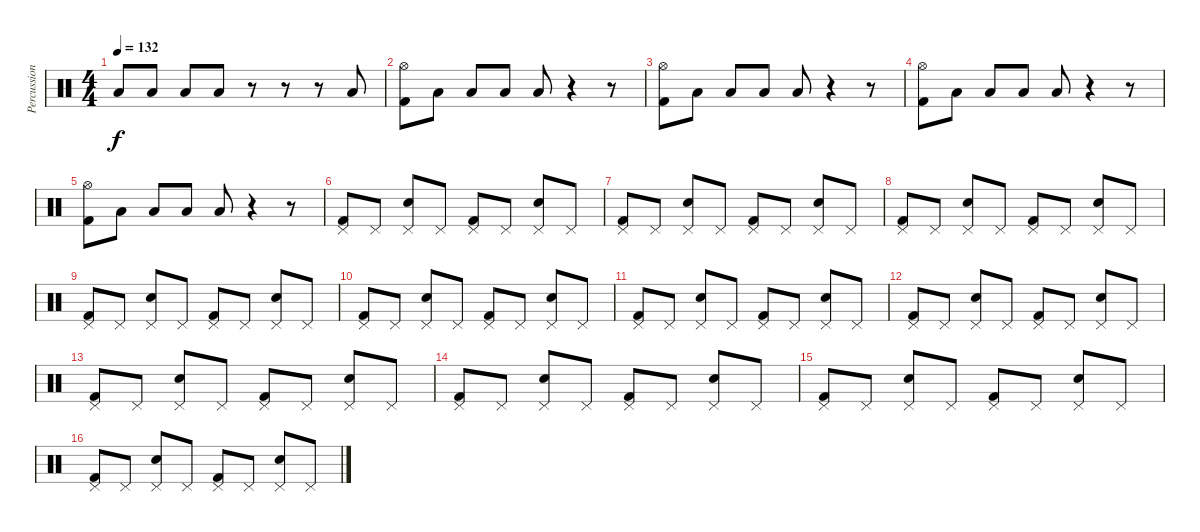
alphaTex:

\track ("Percussion" "Percussion") {instrument percussion}
\staff {score}
\articulation defaults
\ts (4 4)
\tempo 132
\clef neutral
\ks c "Low Tom (hit)".8{dy f} "Low Tom (hit)".8 "Low Tom (hit)".8 "Low Tom (hit)".8
r.8 r.8 r.8 "Low Tom (hit)".8 |
("Hi-Hat (open)" "Kick (hit) 2").8 "Low Tom (hit)".8 "Low Tom (hit)".8 "Low Tom (hit)".8 "Low Tom (hit)".8 r.4 r.8 |
("Hi-Hat (open)" "Kick (hit) 2").8 "Low Tom (hit)".8 "Low Tom (hit)".8 "Low Tom (hit)".8 "Low Tom (hit)".8 r.4 r.8 |
("Hi-Hat (open)" "Kick (hit) 2").8 "Low Tom (hit)".8 "Low Tom (hit)".8 "Low Tom (hit)".8 "Low Tom (hit)".8 r.4 r.8 |
("Hi-Hat (open)" "Kick (hit) 2").8 "Low Tom (hit)".8 "Low Tom (hit)".8 "Low Tom (hit)".8 "Low Tom (hit)".8 r.4 r.8 |
("Pedal Hi-Hat (hit)" "Kick (hit) 2").8 "Pedal Hi-Hat (hit)".8 ("Pedal Hi-Hat (hit)" "Snare (hit) 2").8 "Pedal Hi-Hat (hit)".8 ("Pedal Hi-Hat (hit)" "Kick (hit) 2").8 "Pedal Hi-Hat (hit)".8 ("Pedal Hi-Hat (hit)" "Snare (hit) 2").8 "Pedal Hi-Hat (hit)".8 |
("Pedal Hi-Hat (hit)" "Kick (hit) 2").8 "Pedal Hi-Hat (hit)".8 ("Pedal Hi-Hat (hit)" "Snare (hit) 2").8 "Pedal Hi-Hat (hit)".8 ("Pedal Hi-Hat (hit)" "Kick (hit) 2").8 "Pedal Hi-Hat (hit)".8 ("Pedal Hi-Hat (hit)" "Snare (hit) 2").8 "Pedal Hi-Hat (hit)".8 |
("Pedal Hi-Hat (hit)" "Kick (hit) 2").8 "Pedal Hi-Hat (hit)".8 ("Pedal Hi-Hat (hit)" "Snare (hit) 2").8 "Pedal Hi-Hat (hit)".8 ("Pedal Hi-Hat (hit)" "Kick (hit) 2").8 "Pedal Hi-Hat (hit)".8 ("Pedal Hi-Hat (hit)" "Snare (hit) 2").8 "Pedal Hi-Hat (hit)".8 |
("Pedal Hi-Hat (hit)" "Kick (hit) 2").8 "Pedal Hi-Hat (hit)".8 ("Pedal Hi-Hat (hit)" "Snare (hit) 2").8 "Pedal Hi-Hat (hit)".8 ("Pedal Hi-Hat (hit)" "Kick (hit) 2").8 "Pedal Hi-Hat (hit)".8 ("Pedal Hi-Hat (hit)" "Snare (hit) 2").8 "Pedal Hi-Hat (hit)".8 |
("Pedal Hi-Hat (hit)" "Kick (hit) 2").8 "Pedal Hi-Hat (hit)".8 ("Pedal Hi-Hat (hit)" "Snare (hit) 2").8 "Pedal Hi-Hat (hit)".8 ("Pedal Hi-Hat (hit)" "Kick (hit) 2").8 "Pedal Hi-Hat (hit)".8 ("Pedal Hi-Hat (hit)" "Snare (hit) 2").8 "Pedal Hi-Hat (hit)".8 |
("Pedal Hi-Hat (hit)" "Kick (hit) 2").8 "Pedal Hi-Hat (hit)".8 ("Pedal Hi-Hat (hit)" "Snare (hit) 2").8 "Pedal Hi-Hat (hit)".8 ("Pedal Hi-Hat (hit)" "Kick (hit) 2").8 "Pedal Hi-Hat (hit)".8 ("Pedal Hi-Hat (hit)" "Snare (hit) 2").8 "Pedal Hi-Hat (hit)".8 |
("Pedal Hi-Hat (hit)" "Kick (hit) 2").8 "Pedal Hi-Hat (hit)".8 ("Pedal Hi-Hat (hit)" "Snare (hit) 2").8 "Pedal Hi-Hat (hit)".8 ("Pedal Hi-Hat (hit)" "Kick (hit) 2").8 "Pedal Hi-Hat (hit)".8 ("Pedal Hi-Hat (hit)" "Snare (hit) 2").8 "Pedal Hi-Hat (hit)".8 |
("Pedal Hi-Hat (hit)" "Kick (hit) 2").8 "Pedal Hi-Hat (hit)".8 ("Pedal Hi-Hat (hit)" "Snare (hit) 2").8 "Pedal Hi-Hat (hit)".8 ("Pedal Hi-Hat (hit)" "Kick (hit) 2").8 "Pedal Hi-Hat (hit)".8 ("Pedal Hi-Hat (hit)" "Snare (hit) 2").8 "Pedal Hi-Hat (hit)".8 |
("Pedal Hi-Hat (hit)" "Kick (hit) 2").8 "Pedal Hi-Hat (hit)".8 ("Pedal Hi-Hat (hit)" "Snare (hit) 2").8 "Pedal Hi-Hat (hit)".8 ("Pedal Hi-Hat (hit)" "Kick (hit) 2").8 "Pedal Hi-Hat (hit)".8 ("Pedal Hi-Hat (hit)" "Snare (hit) 2").8 "Pedal Hi-Hat (hit)".8 |
("Pedal Hi-Hat (hit)" "Kick (hit) 2").8 "Pedal Hi-Hat (hit)".8 ("Pedal Hi-Hat (hit)" "Snare (hit) 2").8 "Pedal Hi-Hat (hit)".8 ("Pedal Hi-Hat (hit)" "Kick (hit) 2").8 "Pedal Hi-Hat (hit)".8 ("Pedal Hi-Hat (hit)" "Snare (hit) 2").8 "Pedal Hi-Hat (hit)".8 |
("Pedal Hi-Hat (hit)" "Kick (hit) 2").8 "Pedal Hi-Hat (hit)".8 ("Pedal Hi-Hat (hit)" "Snare (hit) 2").8 "Pedal Hi-Hat (hit)".8 ("Pedal Hi-Hat (hit)" "Kick (hit) 2").8 "Pedal Hi-Hat (hit)".8 ("Pedal Hi-Hat (hit)" "Snare (hit) 2").8 "Pedal Hi-Hat (hit)".8
